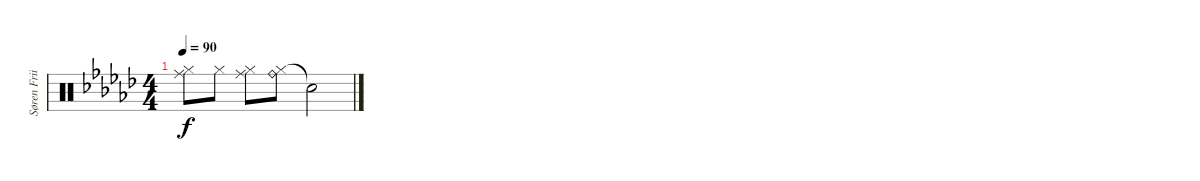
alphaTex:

\track ("Søren Friis (Drums)" "Søren Frii") {instrument percussion}
\staff {score}
\articulation defaults
\ts (4 4)
\tempo 90
\clef neutral
\ks gb
("Hi-Hat (closed)" "Ride (middle)").8{dy f} "Hi-Hat (closed)".8 ("Hi-Hat (closed)" "Ride (middle)").8 ("Hi-Hat (closed)" "Ride (bell)").8 "Snare (hit)"{t}.2
